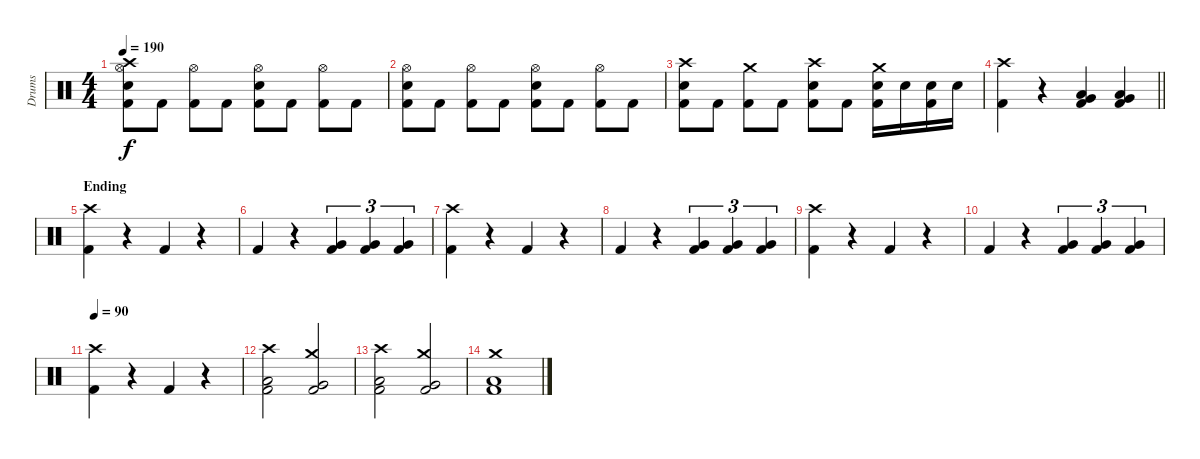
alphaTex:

\track ("Drums" "Drums") {instrument percussion}
\staff {score}
\articulation defaults
\ts (4 4)
\tempo 190
\clef neutral
\ks c
("Crash high (hit)" "Hi-Hat (open)" "Snare (hit) 2" "Kick (hit) 2").8{dy f} "Kick (hit) 2".8 ("Hi-Hat (open)" "Kick (hit) 2").8 "Kick (hit) 2".8 ("Hi-Hat (open)" "Snare (hit) 2" "Kick (hit) 2").8 "Kick (hit) 2".8 ("Hi-Hat (open)" "Kick (hit) 2").8 "Kick (hit) 2".8 |
("Hi-Hat (open)" "Snare (hit) 2" "Kick (hit) 2").8 "Kick (hit) 2".8 ("Hi-Hat (open)" "Kick (hit) 2").8 "Kick (hit) 2".8 ("Hi-Hat (open)" "Snare (hit) 2" "Kick (hit) 2").8 "Kick (hit) 2".8 ("Hi-Hat (open)" "Kick (hit) 2").8 "Kick (hit) 2".8 |
("Crash high (hit)" "Snare (hit) 2" "Kick (hit) 2").8 "Kick (hit) 2".8 ("Crash medium (hit)" "Kick (hit) 2").8 "Kick (hit) 2".8 ("Crash high (hit)" "Snare (hit) 2" "Kick (hit) 2").8 "Kick (hit) 2".8 ("Crash medium (hit)" "Snare (hit) 2" "Kick (hit) 2").16 "Snare (hit) 2".16 ("Snare (hit) 2" "Kick (hit) 2").16 "Snare (hit) 2".16 |
\barLineRight lightlight
("Crash high (hit)" "Kick (hit) 2").4 r.4 ("Very Low Tom (hit)" "Low Floor Tom (hit)" "Kick (hit) 2").4 ("Very Low Tom (hit)" "Low Floor Tom (hit)" "Kick (hit) 2").4 |
\section ("" "Ending")
("Crash high (hit)" "Kick (hit) 2").4 r.4 "Kick (hit) 2".4 r.4 |
"Kick (hit) 2".4 r.4 ("Very Low Tom (hit)" "Kick (hit) 2").4{tu (3 2)} ("Very Low Tom (hit)" "Kick (hit) 2").4{tu (3 2)} ("Very Low Tom (hit)" "Kick (hit) 2").4{tu (3 2)} |
("Crash high (hit)" "Kick (hit) 2").4 r.4 "Kick (hit) 2".4 r.4 |
"Kick (hit) 2".4 r.4 ("Very Low Tom (hit)" "Kick (hit) 2").4{tu (3 2)} ("Very Low Tom (hit)" "Kick (hit) 2").4{tu (3 2)} ("Very Low Tom (hit)" "Kick (hit) 2").4{tu (3 2)} |
("Crash high (hit)" "Kick (hit) 2").4 r.4 "Kick (hit) 2".4 r.4 |
"Kick (hit) 2".4 r.4 ("Very Low Tom (hit)" "Kick (hit) 2").4{tu (3 2)} ("Very Low Tom (hit)" "Kick (hit) 2").4{tu (3 2)} ("Very Low Tom (hit)" "Kick (hit) 2").4{tu (3 2)} |
\tempo 90
("Crash high (hit)" "Kick (hit) 2").4 r.4 "Kick (hit) 2".4 r.4 |
("Crash high (hit)" "Low Tom (hit)" "Kick (hit) 2").2 ("Crash medium (hit)" "Very Low Tom (hit)" "Kick (hit) 2").2 |
("Crash high (hit)" "Low Floor Tom (hit)" "Kick (hit) 2").2 ("Crash medium (hit)" "Very Low Tom (hit)" "Kick (hit) 2").2 |
("Crash medium (hit)" "Low Floor Tom (hit)" "Kick (hit) 2").1
